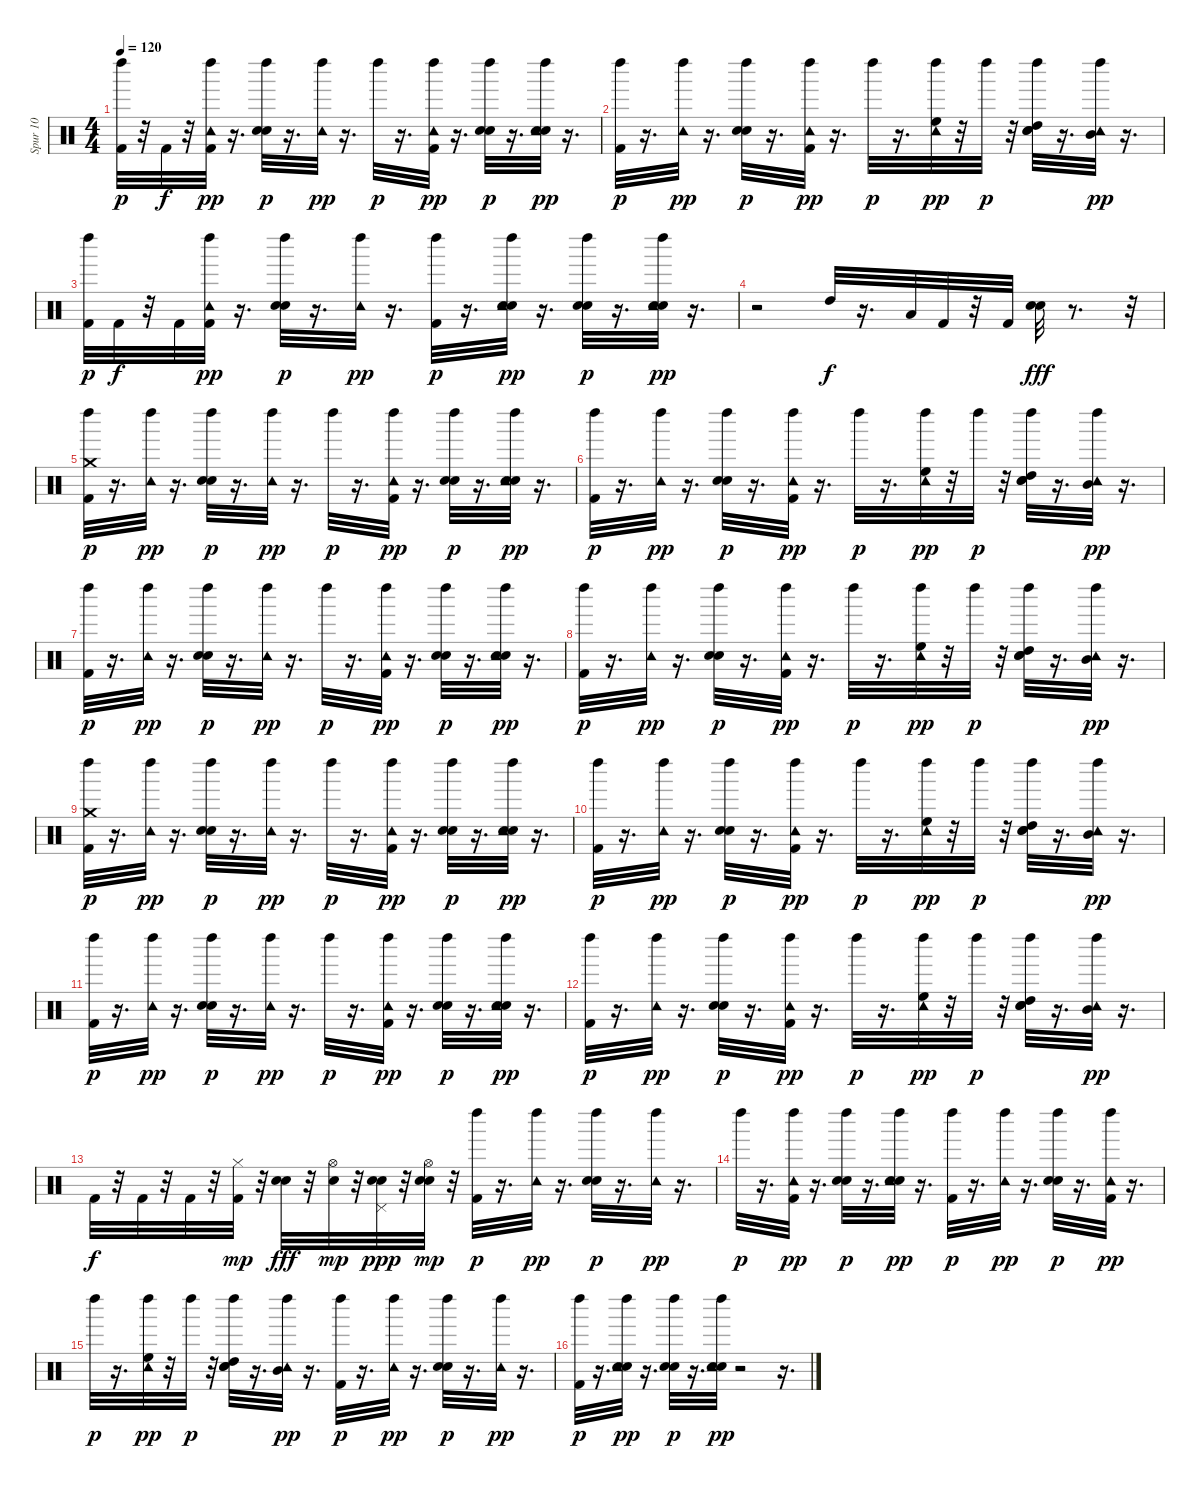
\track ("Spur 10" "Spur 10") {instrument percussion}
\staff {score}
\articulation defaults
\ts (4 4)
\tempo 120
\clef neutral
\ks c
("Kick (hit) 2" "Left Maraca (hit)").32{dy p} r.32 "Kick (hit) 2".32{dy f} r.32 ("Kick (hit) 2" "Tambourine (hit)" "Left Maraca (hit)").32{dy pp} r.16{d} ("Hand Clap (hit)" "Electric Snare (hit)" "Left Maraca (hit)").32{dy p} r.16{d} ("Tambourine (hit)" "Left Maraca (hit)").32{dy pp} r.16{d} "Left Maraca (hit)".32{dy p} r.16{d} ("Kick (hit) 2" "Tambourine (hit)" "Left Maraca (hit)").32{dy pp} r.16{d} ("Hand Clap (hit)" "Electric Snare (hit)" "Left Maraca (hit)").32{dy p} r.16{d} ("Hand Clap (hit)" "Electric Snare (hit)" "Tambourine (hit)" "Left Maraca (hit)").32{dy pp} r.16{d} |
("Kick (hit) 2" "Left Maraca (hit)").32{dy p} r.16{d} ("Tambourine (hit)" "Left Maraca (hit)").32{dy pp} r.16{d} ("Hand Clap (hit)" "Electric Snare (hit)" "Left Maraca (hit)").32{dy p} r.16{d} ("Kick (hit) 2" "Tambourine (hit)" "Left Maraca (hit)").32{dy pp} r.16{d} "Left Maraca (hit)".32{dy p} r.16{d} ("High Floor Tom (hit)" "Tambourine (hit)" "Left Maraca (hit)").32{dy pp} r.32 "Left Maraca (hit)".32{dy p} r.32 ("Hand Clap (hit)" "Electric Snare (hit)" "High Tom (hit)" "Left Maraca (hit)").32 r.16{d} ("Mid Tom (hit)" "Tambourine (hit)" "Left Maraca (hit)").32{dy pp} r.16{d} |
("Kick (hit) 2" "Left Maraca (hit)").32{dy p} "Kick (hit) 2".32{dy f} r.32 "Kick (hit) 2".32 ("Kick (hit) 2" "Tambourine (hit)" "Left Maraca (hit)").32{dy pp} r.16{d} ("Hand Clap (hit)" "Electric Snare (hit)" "Left Maraca (hit)").32{dy p} r.16{d} ("Tambourine (hit)" "Left Maraca (hit)").32{dy pp} r.16{d} ("Kick (hit) 2" "Left Maraca (hit)").32{dy p} r.16{d} ("Hand Clap (hit)" "Electric Snare (hit)" "Tambourine (hit)" "Left Maraca (hit)").32{dy pp} r.16{d} ("Hand Clap (hit)" "Electric Snare (hit)" "Left Maraca (hit)").32{dy p} r.16{d} ("Hand Clap (hit)" "Electric Snare (hit)" "Tambourine (hit)" "Left Maraca (hit)").32{dy pp} r.16{d} |
r.2 "High Tom (hit)".32{dy f} r.16{d} "Low Tom (hit)".32 "Kick (hit) 2".32 r.32 "Kick (hit) 2".32 ("Hand Clap (hit)" "Electric Snare (hit)").32{dy fff} r.8{d} r.32 |
("Kick (hit) 2" "Crash medium (hit)" "Left Maraca (hit)").32{dy p} r.16{d} ("Tambourine (hit)" "Left Maraca (hit)").32{dy pp} r.16{d} ("Hand Clap (hit)" "Electric Snare (hit)" "Left Maraca (hit)").32{dy p} r.16{d} ("Tambourine (hit)" "Left Maraca (hit)").32{dy pp} r.16{d} "Left Maraca (hit)".32{dy p} r.16{d} ("Kick (hit) 2" "Tambourine (hit)" "Left Maraca (hit)").32{dy pp} r.16{d} ("Hand Clap (hit)" "Electric Snare (hit)" "Left Maraca (hit)").32{dy p} r.16{d} ("Hand Clap (hit)" "Electric Snare (hit)" "Tambourine (hit)" "Left Maraca (hit)").32{dy pp} r.16{d} |
("Kick (hit) 2" "Left Maraca (hit)").32{dy p} r.16{d} ("Tambourine (hit)" "Left Maraca (hit)").32{dy pp} r.16{d} ("Hand Clap (hit)" "Electric Snare (hit)" "Left Maraca (hit)").32{dy p} r.16{d} ("Kick (hit) 2" "Tambourine (hit)" "Left Maraca (hit)").32{dy pp} r.16{d} "Left Maraca (hit)".32{dy p} r.16{d} ("High Floor Tom (hit)" "Tambourine (hit)" "Left Maraca (hit)").32{dy pp} r.32 "Left Maraca (hit)".32{dy p} r.32 ("Hand Clap (hit)" "Electric Snare (hit)" "High Tom (hit)" "Left Maraca (hit)").32 r.16{d} ("Mid Tom (hit)" "Tambourine (hit)" "Left Maraca (hit)").32{dy pp} r.16{d} |
("Kick (hit) 2" "Left Maraca (hit)").32{dy p} r.16{d} ("Tambourine (hit)" "Left Maraca (hit)").32{dy pp} r.16{d} ("Hand Clap (hit)" "Electric Snare (hit)" "Left Maraca (hit)").32{dy p} r.16{d} ("Tambourine (hit)" "Left Maraca (hit)").32{dy pp} r.16{d} "Left Maraca (hit)".32{dy p} r.16{d} ("Kick (hit) 2" "Tambourine (hit)" "Left Maraca (hit)").32{dy pp} r.16{d} ("Hand Clap (hit)" "Electric Snare (hit)" "Left Maraca (hit)").32{dy p} r.16{d} ("Hand Clap (hit)" "Electric Snare (hit)" "Tambourine (hit)" "Left Maraca (hit)").32{dy pp} r.16{d} |
("Kick (hit) 2" "Left Maraca (hit)").32{dy p} r.16{d} ("Tambourine (hit)" "Left Maraca (hit)").32{dy pp} r.16{d} ("Hand Clap (hit)" "Electric Snare (hit)" "Left Maraca (hit)").32{dy p} r.16{d} ("Kick (hit) 2" "Tambourine (hit)" "Left Maraca (hit)").32{dy pp} r.16{d} "Left Maraca (hit)".32{dy p} r.16{d} ("High Floor Tom (hit)" "Tambourine (hit)" "Left Maraca (hit)").32{dy pp} r.32 "Left Maraca (hit)".32{dy p} r.32 ("Hand Clap (hit)" "Electric Snare (hit)" "High Tom (hit)" "Left Maraca (hit)").32 r.16{d} ("Mid Tom (hit)" "Tambourine (hit)" "Left Maraca (hit)").32{dy pp} r.16{d} |
("Kick (hit) 2" "Crash medium (hit)" "Left Maraca (hit)").32{dy p} r.16{d} ("Tambourine (hit)" "Left Maraca (hit)").32{dy pp} r.16{d} ("Hand Clap (hit)" "Electric Snare (hit)" "Left Maraca (hit)").32{dy p} r.16{d} ("Tambourine (hit)" "Left Maraca (hit)").32{dy pp} r.16{d} "Left Maraca (hit)".32{dy p} r.16{d} ("Kick (hit) 2" "Tambourine (hit)" "Left Maraca (hit)").32{dy pp} r.16{d} ("Hand Clap (hit)" "Electric Snare (hit)" "Left Maraca (hit)").32{dy p} r.16{d} ("Hand Clap (hit)" "Electric Snare (hit)" "Tambourine (hit)" "Left Maraca (hit)").32{dy pp} r.16{d} |
("Kick (hit) 2" "Left Maraca (hit)").32{dy p} r.16{d} ("Tambourine (hit)" "Left Maraca (hit)").32{dy pp} r.16{d} ("Hand Clap (hit)" "Electric Snare (hit)" "Left Maraca (hit)").32{dy p} r.16{d} ("Kick (hit) 2" "Tambourine (hit)" "Left Maraca (hit)").32{dy pp} r.16{d} "Left Maraca (hit)".32{dy p} r.16{d} ("High Floor Tom (hit)" "Tambourine (hit)" "Left Maraca (hit)").32{dy pp} r.32 "Left Maraca (hit)".32{dy p} r.32 ("Hand Clap (hit)" "Electric Snare (hit)" "High Tom (hit)" "Left Maraca (hit)").32 r.16{d} ("Mid Tom (hit)" "Tambourine (hit)" "Left Maraca (hit)").32{dy pp} r.16{d} |
("Kick (hit) 2" "Left Maraca (hit)").32{dy p} r.16{d} ("Tambourine (hit)" "Left Maraca (hit)").32{dy pp} r.16{d} ("Hand Clap (hit)" "Electric Snare (hit)" "Left Maraca (hit)").32{dy p} r.16{d} ("Tambourine (hit)" "Left Maraca (hit)").32{dy pp} r.16{d} "Left Maraca (hit)".32{dy p} r.16{d} ("Kick (hit) 2" "Tambourine (hit)" "Left Maraca (hit)").32{dy pp} r.16{d} ("Hand Clap (hit)" "Electric Snare (hit)" "Left Maraca (hit)").32{dy p} r.16{d} ("Hand Clap (hit)" "Electric Snare (hit)" "Tambourine (hit)" "Left Maraca (hit)").32{dy pp} r.16{d} |
("Kick (hit) 2" "Left Maraca (hit)").32{dy p} r.16{d} ("Tambourine (hit)" "Left Maraca (hit)").32{dy pp} r.16{d} ("Hand Clap (hit)" "Electric Snare (hit)" "Left Maraca (hit)").32{dy p} r.16{d} ("Kick (hit) 2" "Tambourine (hit)" "Left Maraca (hit)").32{dy pp} r.16{d} "Left Maraca (hit)".32{dy p} r.16{d} ("High Floor Tom (hit)" "Tambourine (hit)" "Left Maraca (hit)").32{dy pp} r.32 "Left Maraca (hit)".32{dy p} r.32 ("Hand Clap (hit)" "Electric Snare (hit)" "High Tom (hit)" "Left Maraca (hit)").32 r.16{d} ("Mid Tom (hit)" "Tambourine (hit)" "Left Maraca (hit)").32{dy pp} r.16{d} |
"Kick (hit) 2".32{dy f} r.32 "Kick (hit) 2".32 r.32 "Kick (hit) 2".32 r.32 ("Kick (hit) 2" "Hi-Hat (closed)").32{dy mp} r.32 ("Hand Clap (hit)" "Electric Snare (hit)").32{dy fff} r.32 ("Snare (hit) 2" "Hi-Hat (open)").32{dy mp} r.32 ("Hand Clap (hit)" "Electric Snare (hit)" "Pedal Hi-Hat (hit)").32{dy ppp} r.32 ("Hand Clap (hit)" "Electric Snare (hit)" "Hi-Hat (open)").32{dy mp} r.32 ("Kick (hit) 2" "Left Maraca (hit)").32{dy p} r.16{d} ("Tambourine (hit)" "Left Maraca (hit)").32{dy pp} r.16{d} ("Hand Clap (hit)" "Electric Snare (hit)" "Left Maraca (hit)").32{dy p} r.16{d} ("Tambourine (hit)" "Left Maraca (hit)").32{dy pp} r.16{d} |
"Left Maraca (hit)".32{dy p} r.16{d} ("Kick (hit) 2" "Tambourine (hit)" "Left Maraca (hit)").32{dy pp} r.16{d} ("Hand Clap (hit)" "Electric Snare (hit)" "Left Maraca (hit)").32{dy p} r.16{d} ("Hand Clap (hit)" "Electric Snare (hit)" "Tambourine (hit)" "Left Maraca (hit)").32{dy pp} r.16{d} ("Kick (hit) 2" "Left Maraca (hit)").32{dy p} r.16{d} ("Tambourine (hit)" "Left Maraca (hit)").32{dy pp} r.16{d} ("Hand Clap (hit)" "Electric Snare (hit)" "Left Maraca (hit)").32{dy p} r.16{d} ("Kick (hit) 2" "Tambourine (hit)" "Left Maraca (hit)").32{dy pp} r.16{d} |
"Left Maraca (hit)".32{dy p} r.16{d} ("High Floor Tom (hit)" "Tambourine (hit)" "Left Maraca (hit)").32{dy pp} r.32 "Left Maraca (hit)".32{dy p} r.32 ("Hand Clap (hit)" "Electric Snare (hit)" "High Tom (hit)" "Left Maraca (hit)").32 r.16{d} ("Mid Tom (hit)" "Tambourine (hit)" "Left Maraca (hit)").32{dy pp} r.16{d} ("Kick (hit) 2" "Left Maraca (hit)").32{dy p} r.16{d} ("Tambourine (hit)" "Left Maraca (hit)").32{dy pp} r.16{d} ("Hand Clap (hit)" "Electric Snare (hit)" "Left Maraca (hit)").32{dy p} r.16{d} ("Tambourine (hit)" "Left Maraca (hit)").32{dy pp} r.16{d} |
("Kick (hit) 2" "Left Maraca (hit)").32{dy p} r.16{d} ("Hand Clap (hit)" "Electric Snare (hit)" "Tambourine (hit)" "Left Maraca (hit)").32{dy pp} r.16{d} ("Hand Clap (hit)" "Electric Snare (hit)" "Left Maraca (hit)").32{dy p} r.16{d} ("Hand Clap (hit)" "Electric Snare (hit)" "Tambourine (hit)" "Left Maraca (hit)").32{dy pp} r.2 r.16{d}
